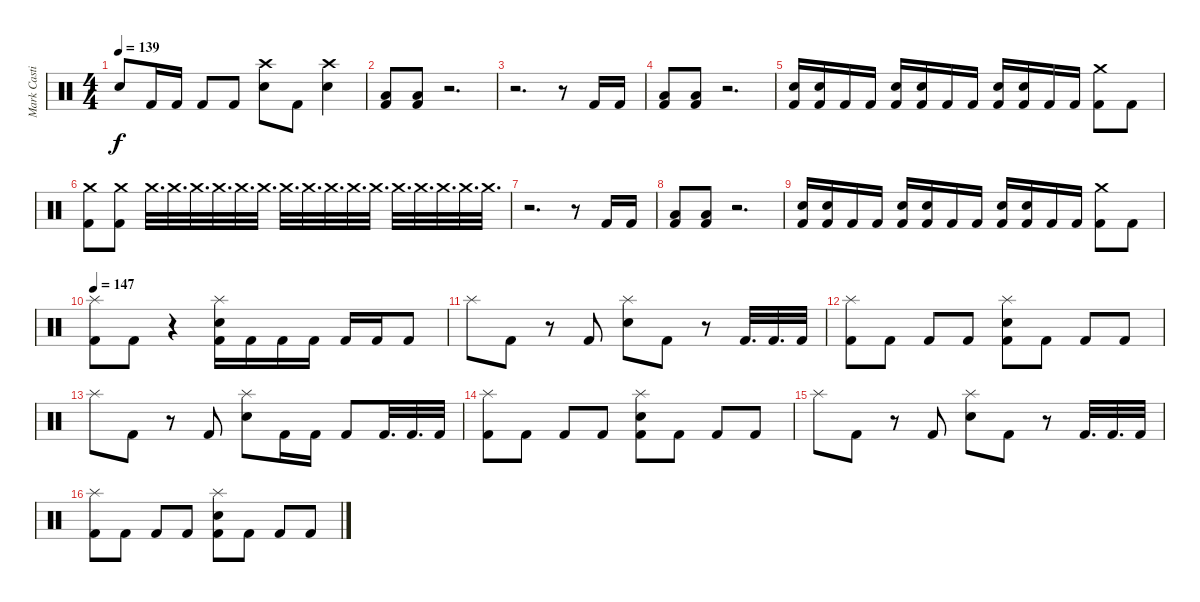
\track ("Mark Castillo" "Mark Casti") {instrument percussion}
\staff {score}
\articulation defaults
\ts (4 4)
\tempo 139
\clef neutral
\ks c "Snare (hit) 2".8{dy f} "Kick (hit) 2".16 "Kick (hit) 2".16 "Kick (hit) 2".8 "Kick (hit) 2".8
("Crash high (hit)" "Snare (hit) 2").8 "Kick (hit) 2".8 ("Crash high (hit)" "Snare (hit) 2").4 |
("Low Floor Tom (hit)" "Kick (hit) 2").8 ("Low Floor Tom (hit)" "Kick (hit) 2").8 r.2{d} |
r.2{d} r.8 "Kick (hit) 2".16 "Kick (hit) 2".16 |
("Low Floor Tom (hit)" "Kick (hit) 2").8 ("Low Floor Tom (hit)" "Kick (hit) 2").8 r.2{d} |
("Snare (hit) 2" "Kick (hit) 2").16 ("Snare (hit) 2" "Kick (hit) 2").16 "Kick (hit) 2".16 "Kick (hit) 2".16 ("Snare (hit) 2" "Kick (hit) 2").16 ("Snare (hit) 2" "Kick (hit) 2").16 "Kick (hit) 2".16 "Kick (hit) 2".16 ("Snare (hit) 2" "Kick (hit) 2").16 ("Snare (hit) 2" "Kick (hit) 2").16 "Kick (hit) 2".16 "Kick (hit) 2".16 ("Crash medium (hit)" "Kick (hit) 2").8 "Kick (hit) 2".8 |
("Crash medium (hit)" "Kick (hit) 2").8 ("Crash medium (hit)" "Kick (hit) 2").8 "Crash medium (hit)".32{d volume 2} "Crash medium (hit)".32{d volume 10} "Crash medium (hit)".32{d} "Crash medium (hit)".32{d} "Crash medium (hit)".32{d} "Crash medium (hit)".32{d} "Crash medium (hit)".32{d} "Crash medium (hit)".32{d} "Crash medium (hit)".32{d} "Crash medium (hit)".32{d} "Crash medium (hit)".32{d} "Crash medium (hit)".32{d} "Crash medium (hit)".32{d} "Crash medium (hit)".32{d} "Crash medium (hit)".32{d} "Crash medium (hit)".32{d} |
r.2{d volume 16} r.8 "Kick (hit) 2".16 "Kick (hit) 2".16 |
("Low Floor Tom (hit)" "Kick (hit) 2").8 ("Low Floor Tom (hit)" "Kick (hit) 2").8 r.2{d} |
("Snare (hit) 2" "Kick (hit) 2").16 ("Snare (hit) 2" "Kick (hit) 2").16 "Kick (hit) 2".16 "Kick (hit) 2".16 ("Snare (hit) 2" "Kick (hit) 2").16 ("Snare (hit) 2" "Kick (hit) 2").16 "Kick (hit) 2".16 "Kick (hit) 2".16 ("Snare (hit) 2" "Kick (hit) 2").16 ("Snare (hit) 2" "Kick (hit) 2").16 "Kick (hit) 2".16 "Kick (hit) 2".16 ("Crash medium (hit)" "Kick (hit) 2").8 "Kick (hit) 2".8 |
\tempo 147
("Splash (hit)" "Kick (hit) 2").8 "Kick (hit) 2".8 r.4 ("Splash (hit)" "Snare (hit) 2" "Kick (hit) 2").16 "Kick (hit) 2".16 "Kick (hit) 2".16 "Kick (hit) 2".16 "Kick (hit) 2".16 "Kick (hit) 2".16 "Kick (hit) 2".8 |
"Splash (hit)".8 "Kick (hit) 2".8 r.8 "Kick (hit) 2".8 ("Splash (hit)" "Snare (hit) 2").8 "Kick (hit) 2".8 r.8 "Kick (hit) 2".32{d} "Kick (hit) 2".32{d} "Kick (hit) 2".32 |
("Splash (hit)" "Kick (hit) 2").8 "Kick (hit) 2".8 "Kick (hit) 2".8 "Kick (hit) 2".8 ("Splash (hit)" "Snare (hit) 2" "Kick (hit) 2").8 "Kick (hit) 2".8 "Kick (hit) 2".8 "Kick (hit) 2".8 |
"Splash (hit)".8 "Kick (hit) 2".8 r.8 "Kick (hit) 2".8 ("Splash (hit)" "Snare (hit) 2").8 "Kick (hit) 2".16 "Kick (hit) 2".16 "Kick (hit) 2".8 "Kick (hit) 2".32{d} "Kick (hit) 2".32{d} "Kick (hit) 2".32 |
("Splash (hit)" "Kick (hit) 2").8 "Kick (hit) 2".8 "Kick (hit) 2".8 "Kick (hit) 2".8 ("Splash (hit)" "Snare (hit) 2" "Kick (hit) 2").8 "Kick (hit) 2".8 "Kick (hit) 2".8 "Kick (hit) 2".8 |
"Splash (hit)".8 "Kick (hit) 2".8 r.8 "Kick (hit) 2".8 ("Splash (hit)" "Snare (hit) 2").8 "Kick (hit) 2".8 r.8 "Kick (hit) 2".32{d} "Kick (hit) 2".32{d} "Kick (hit) 2".32 |
("Splash (hit)" "Kick (hit) 2").8 "Kick (hit) 2".8 "Kick (hit) 2".8 "Kick (hit) 2".8 ("Splash (hit)" "Snare (hit) 2" "Kick (hit) 2").8 "Kick (hit) 2".8 "Kick (hit) 2".8 "Kick (hit) 2".8
